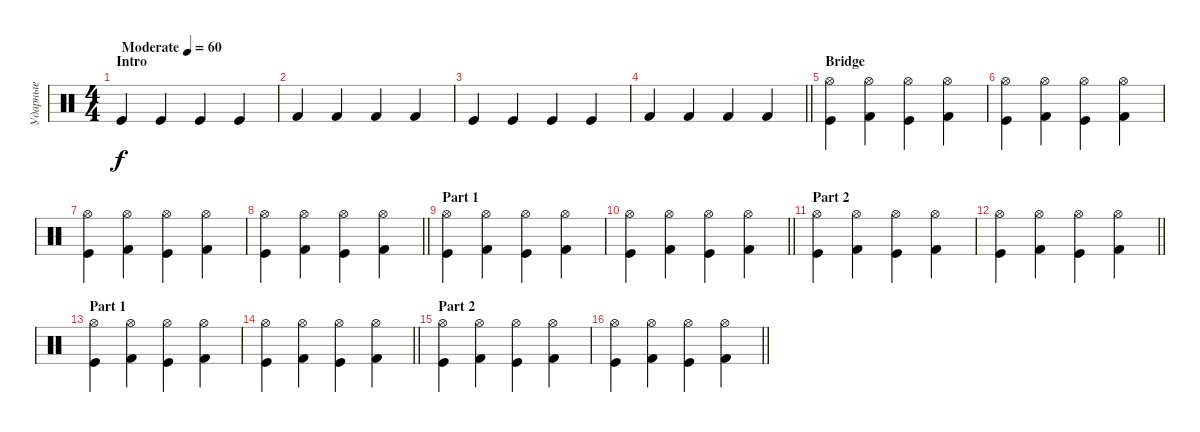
\track ("Ударные" "Ударные") {instrument percussion}
\staff {score}
\articulation defaults
\ts (4 4)
\section ("" "Intro")
\tempo (60 "Moderate")
\clef neutral
\ks c "Kick (hit)".4{dy f} "Kick (hit)".4 "Kick (hit)".4 "Kick (hit)".4
|
"Kick (hit) 2".4 "Kick (hit) 2".4 "Kick (hit) 2".4 "Kick (hit) 2".4 |
"Kick (hit)".4 "Kick (hit)".4 "Kick (hit)".4 "Kick (hit)".4 |
\barLineRight lightlight "Kick (hit) 2".4 "Kick (hit) 2".4 "Kick (hit) 2".4 "Kick (hit) 2".4
|
\section ("" "Bridge")
("Hi-Hat (open)" "Kick (hit)").4 ("Hi-Hat (open)" "Kick (hit) 2").4 ("Hi-Hat (open)" "Kick (hit)").4 ("Hi-Hat (open)" "Kick (hit) 2").4 |
("Hi-Hat (open)" "Kick (hit)").4 ("Hi-Hat (open)" "Kick (hit) 2").4 ("Hi-Hat (open)" "Kick (hit)").4 ("Hi-Hat (open)" "Kick (hit) 2").4 |
("Hi-Hat (open)" "Kick (hit)").4 ("Hi-Hat (open)" "Kick (hit) 2").4 ("Hi-Hat (open)" "Kick (hit)").4 ("Hi-Hat (open)" "Kick (hit) 2").4 |
\barLineRight lightlight
("Hi-Hat (open)" "Kick (hit)").4 ("Hi-Hat (open)" "Kick (hit) 2").4 ("Hi-Hat (open)" "Kick (hit)").4 ("Hi-Hat (open)" "Kick (hit) 2").4 |
\section ("" "Part 1")
("Hi-Hat (open)" "Kick (hit)").4 ("Hi-Hat (open)" "Kick (hit) 2").4 ("Hi-Hat (open)" "Kick (hit)").4 ("Hi-Hat (open)" "Kick (hit) 2").4 |
\barLineRight lightlight
("Hi-Hat (open)" "Kick (hit)").4 ("Hi-Hat (open)" "Kick (hit) 2").4 ("Hi-Hat (open)" "Kick (hit)").4 ("Hi-Hat (open)" "Kick (hit) 2").4 |
\section ("" "Part 2")
("Hi-Hat (open)" "Kick (hit)").4 ("Hi-Hat (open)" "Kick (hit) 2").4 ("Hi-Hat (open)" "Kick (hit)").4 ("Hi-Hat (open)" "Kick (hit) 2").4 |
\barLineRight lightlight
("Hi-Hat (open)" "Kick (hit)").4 ("Hi-Hat (open)" "Kick (hit) 2").4 ("Hi-Hat (open)" "Kick (hit)").4 ("Hi-Hat (open)" "Kick (hit) 2").4 |
\section ("" "Part 1")
("Hi-Hat (open)" "Kick (hit)").4 ("Hi-Hat (open)" "Kick (hit) 2").4 ("Hi-Hat (open)" "Kick (hit)").4 ("Hi-Hat (open)" "Kick (hit) 2").4 |
\barLineRight lightlight
("Hi-Hat (open)" "Kick (hit)").4 ("Hi-Hat (open)" "Kick (hit) 2").4 ("Hi-Hat (open)" "Kick (hit)").4 ("Hi-Hat (open)" "Kick (hit) 2").4 |
\section ("" "Part 2")
("Hi-Hat (open)" "Kick (hit)").4 ("Hi-Hat (open)" "Kick (hit) 2").4 ("Hi-Hat (open)" "Kick (hit)").4 ("Hi-Hat (open)" "Kick (hit) 2").4 |
\barLineRight lightlight
("Hi-Hat (open)" "Kick (hit)").4 ("Hi-Hat (open)" "Kick (hit) 2").4 ("Hi-Hat (open)" "Kick (hit)").4 ("Hi-Hat (open)" "Kick (hit) 2").4
